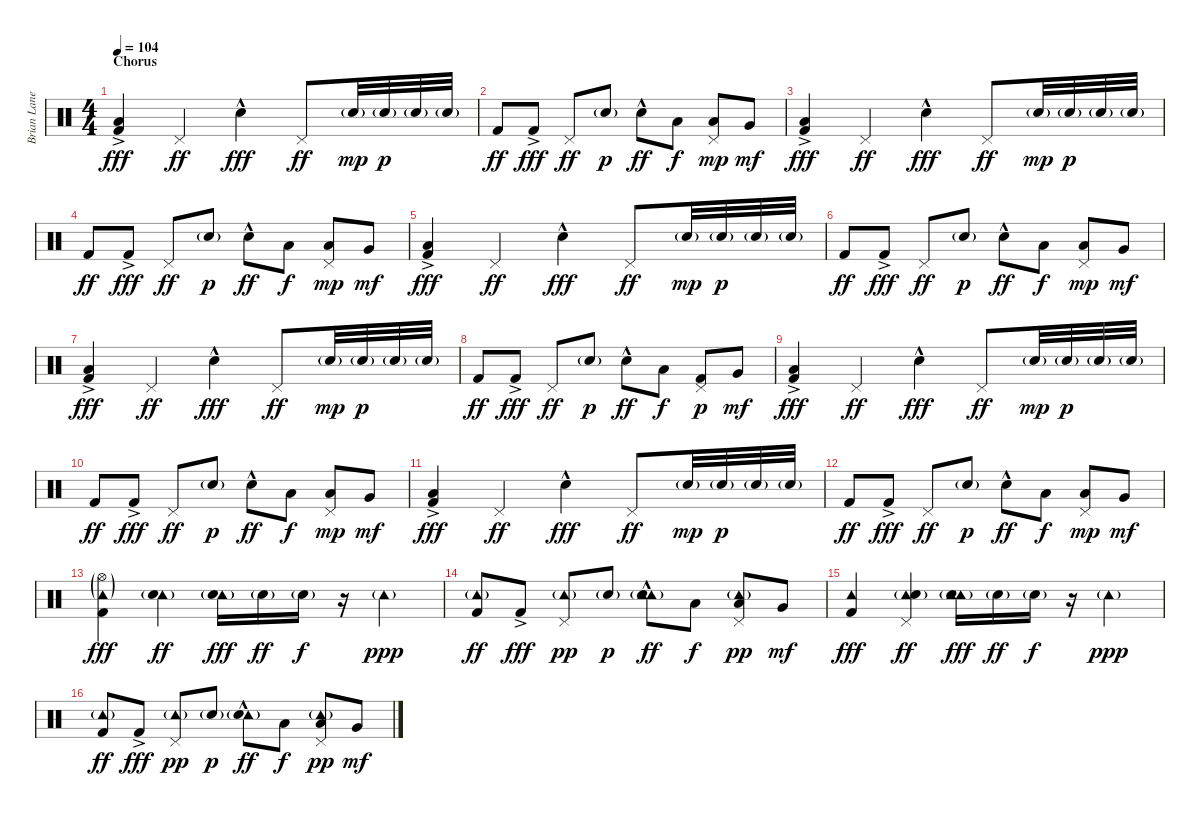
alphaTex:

\track ("Brian Lane - Drums" "Brian Lane") {instrument percussion}
\staff {score}
\articulation defaults
\ts (4 4)
\section ("" "Chorus")
\tempo 104
\clef neutral
\ks c
("Low Floor Tom (hit)" "Kick (hit) 2"{ac}).4{dy fff} "Pedal Hi-Hat (hit)".4{dy ff} "Snare (hit) 2"{hac}.4{dy fff} "Pedal Hi-Hat (hit)".8{dy ff} "Snare (hit) 2"{g}.32{dy mp} "Snare (hit) 2"{g}.32{dy p} "Snare (hit) 2"{g}.32 "Snare (hit) 2"{g}.32 |
"Kick (hit) 2".8{dy ff} "Kick (hit) 2"{ac}.8{dy fff} "Pedal Hi-Hat (hit)".8{dy ff} "Snare (hit) 2"{g}.8{dy p} "Snare (hit) 2"{hac}.8{dy ff} "Low Tom (hit)".8{dy f} ("Pedal Hi-Hat (hit)" "Low Tom (hit)").8{dy mp} "Very Low Tom (hit)".8{dy mf} |
("Low Floor Tom (hit)" "Kick (hit) 2"{ac}).4{dy fff} "Pedal Hi-Hat (hit)".4{dy ff} "Snare (hit) 2"{hac}.4{dy fff} "Pedal Hi-Hat (hit)".8{dy ff} "Snare (hit) 2"{g}.32{dy mp} "Snare (hit) 2"{g}.32{dy p} "Snare (hit) 2"{g}.32 "Snare (hit) 2"{g}.32 |
"Kick (hit) 2".8{dy ff} "Kick (hit) 2"{ac}.8{dy fff} "Pedal Hi-Hat (hit)".8{dy ff} "Snare (hit) 2"{g}.8{dy p} "Snare (hit) 2"{hac}.8{dy ff} "Low Tom (hit)".8{dy f} ("Pedal Hi-Hat (hit)" "Low Tom (hit)").8{dy mp} "Very Low Tom (hit)".8{dy mf} |
("Low Floor Tom (hit)" "Kick (hit) 2"{ac}).4{dy fff} "Pedal Hi-Hat (hit)".4{dy ff} "Snare (hit) 2"{hac}.4{dy fff} "Pedal Hi-Hat (hit)".8{dy ff} "Snare (hit) 2"{g}.32{dy mp} "Snare (hit) 2"{g}.32{dy p} "Snare (hit) 2"{g}.32 "Snare (hit) 2"{g}.32 |
"Kick (hit) 2".8{dy ff} "Kick (hit) 2"{ac}.8{dy fff} "Pedal Hi-Hat (hit)".8{dy ff} "Snare (hit) 2"{g}.8{dy p} "Snare (hit) 2"{hac}.8{dy ff} "Low Tom (hit)".8{dy f} ("Pedal Hi-Hat (hit)" "Low Tom (hit)").8{dy mp} "Very Low Tom (hit)".8{dy mf} |
("Low Floor Tom (hit)" "Kick (hit) 2"{ac}).4{dy fff} "Pedal Hi-Hat (hit)".4{dy ff} "Snare (hit) 2"{hac}.4{dy fff} "Pedal Hi-Hat (hit)".8{dy ff} "Snare (hit) 2"{g}.32{dy mp} "Snare (hit) 2"{g}.32{dy p} "Snare (hit) 2"{g}.32 "Snare (hit) 2"{g}.32 |
"Kick (hit) 2".8{dy ff} "Kick (hit) 2"{ac}.8{dy fff} "Pedal Hi-Hat (hit)".8{dy ff} "Snare (hit) 2"{g}.8{dy p} "Snare (hit) 2"{hac}.8{dy ff} "Low Tom (hit)".8{dy f} ("Pedal Hi-Hat (hit)" "Kick (hit) 2").8{dy p} "Very Low Tom (hit)".8{dy mf} |
("Low Floor Tom (hit)" "Kick (hit) 2"{ac}).4{dy fff} "Pedal Hi-Hat (hit)".4{dy ff} "Snare (hit) 2"{hac}.4{dy fff} "Pedal Hi-Hat (hit)".8{dy ff} "Snare (hit) 2"{g}.32{dy mp} "Snare (hit) 2"{g}.32{dy p} "Snare (hit) 2"{g}.32 "Snare (hit) 2"{g}.32 |
"Kick (hit) 2".8{dy ff} "Kick (hit) 2"{ac}.8{dy fff} "Pedal Hi-Hat (hit)".8{dy ff} "Snare (hit) 2"{g}.8{dy p} "Snare (hit) 2"{hac}.8{dy ff} "Low Tom (hit)".8{dy f} ("Pedal Hi-Hat (hit)" "Low Tom (hit)").8{dy mp} "Very Low Tom (hit)".8{dy mf} |
("Low Floor Tom (hit)" "Kick (hit) 2"{ac}).4{dy fff} "Pedal Hi-Hat (hit)".4{dy ff} "Snare (hit) 2"{hac}.4{dy fff} "Pedal Hi-Hat (hit)".8{dy ff} "Snare (hit) 2"{g}.32{dy mp} "Snare (hit) 2"{g}.32{dy p} "Snare (hit) 2"{g}.32 "Snare (hit) 2"{g}.32 |
"Kick (hit) 2".8{dy ff} "Kick (hit) 2"{ac}.8{dy fff} "Pedal Hi-Hat (hit)".8{dy ff} "Snare (hit) 2"{g}.8{dy p} "Snare (hit) 2"{hac}.8{dy ff} "Low Tom (hit)".8{dy f} ("Pedal Hi-Hat (hit)" "Low Tom (hit)").8{dy mp} "Very Low Tom (hit)".8{dy mf} |
("Tambourine (hit)"{g} "Hi-Hat (open)"{g} "Kick (hit) 2").4{dy fff} ("Tambourine (hit)"{g} "Snare (hit) 2").4{dy ff} ("Tambourine (hit)"{g} "Snare (hit) 2").16{dy fff} "Snare (hit) 2"{g}.16{dy ff} "Snare (hit) 2"{g}.16{dy f} r.16 "Tambourine (hit)"{g}.4{dy ppp} |
("Tambourine (hit)"{g} "Kick (hit) 2").8{dy ff} "Kick (hit) 2"{ac}.8{dy fff} ("Tambourine (hit)"{g} "Pedal Hi-Hat (hit)").8{dy pp} "Snare (hit) 2"{g}.8{dy p} ("Tambourine (hit)"{g} "Tambourine (hit)"{g} "Snare (hit) 2"{hac}).8{dy ff} "Low Tom (hit)".8{dy f} ("Tambourine (hit)"{g} "Pedal Hi-Hat (hit)" "Low Tom (hit)").8{dy pp} "Very Low Tom (hit)".8{dy mf} |
("Tambourine (hit)" "Kick (hit) 2").4{dy fff} ("Tambourine (hit)"{g} "Pedal Hi-Hat (hit)" "Snare (hit) 2").4{dy ff} ("Tambourine (hit)"{g} "Tambourine (hit)" "Snare (hit) 2").16{dy fff} "Snare (hit) 2"{g}.16{dy ff} "Snare (hit) 2"{g}.16{dy f} r.16 "Tambourine (hit)"{g}.4{dy ppp} |
("Tambourine (hit)"{g} "Kick (hit) 2").8{dy ff} "Kick (hit) 2"{ac}.8{dy fff} ("Tambourine (hit)"{g} "Pedal Hi-Hat (hit)").8{dy pp} "Snare (hit) 2"{g}.8{dy p} ("Tambourine (hit)"{g} "Snare (hit) 2"{hac}).8{dy ff} "Low Tom (hit)".8{dy f} ("Tambourine (hit)"{g} "Pedal Hi-Hat (hit)" "Low Tom (hit)").8{dy pp} "Very Low Tom (hit)".8{dy mf}
